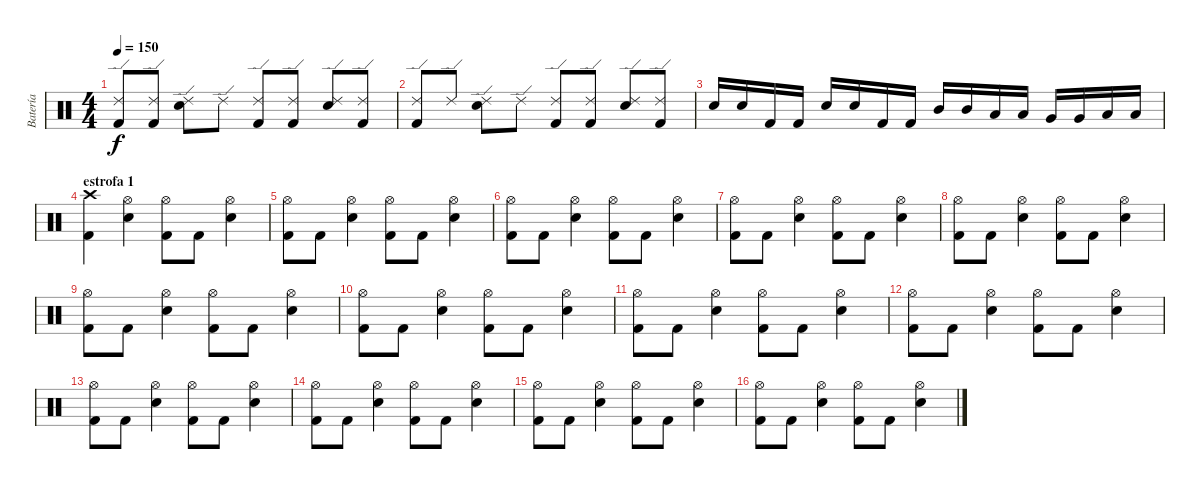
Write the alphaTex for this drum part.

\track ("Batería" "Batería") {instrument percussion}
\staff {score}
\articulation defaults
\ts (4 4)
\tempo 150
\clef neutral
\ks c
("Ride (edge) 2" "Kick (hit) 2").8{dy f} ("Ride (edge) 2" "Kick (hit) 2").8 ("Ride (edge) 2" "Electric Snare (hit)").8 "Ride (edge) 2".8 ("Ride (edge) 2" "Kick (hit) 2").8 ("Ride (edge) 2" "Kick (hit) 2").8 ("Ride (edge) 2" "Electric Snare (hit)").8 ("Ride (edge) 2" "Kick (hit) 2").8 |
("Ride (edge) 2" "Kick (hit) 2").8 "Ride (edge) 2".8 ("Ride (edge) 2" "Electric Snare (hit)").8 "Ride (edge) 2".8 ("Ride (edge) 2" "Kick (hit) 2").8 ("Ride (edge) 2" "Kick (hit) 2").8 ("Ride (edge) 2" "Electric Snare (hit)").8 ("Ride (edge) 2" "Kick (hit) 2").8 |
"Electric Snare (hit)".16 "Electric Snare (hit)".16 "Kick (hit) 2".16 "Kick (hit) 2".16 "Electric Snare (hit)".16 "Electric Snare (hit)".16 "Kick (hit) 2".16 "Kick (hit) 2".16 "Mid Tom (hit)".16 "Mid Tom (hit)".16 "Low Tom (hit)".16 "Low Tom (hit)".16 "Very Low Tom (hit)".16 "Very Low Tom (hit)".16 "Low Floor Tom (hit)".16 "Low Floor Tom (hit)".16 |
\section ("" "estrofa 1")
("Crash high (hit)" "Kick (hit) 2").4 ("Hi-Hat (open)" "Electric Snare (hit)").4 ("Kick (hit) 2" "Hi-Hat (open)").8 "Kick (hit) 2".8 ("Hi-Hat (open)" "Electric Snare (hit)").4 |
("Hi-Hat (open)" "Kick (hit) 2").8 "Kick (hit) 2".8 ("Hi-Hat (open)" "Electric Snare (hit)").4 ("Kick (hit) 2" "Hi-Hat (open)").8 "Kick (hit) 2".8 ("Hi-Hat (open)" "Electric Snare (hit)").4 |
("Hi-Hat (open)" "Kick (hit) 2").8 "Kick (hit) 2".8 ("Hi-Hat (open)" "Electric Snare (hit)").4 ("Kick (hit) 2" "Hi-Hat (open)").8 "Kick (hit) 2".8 ("Hi-Hat (open)" "Electric Snare (hit)").4 |
("Hi-Hat (open)" "Kick (hit) 2").8 "Kick (hit) 2".8 ("Hi-Hat (open)" "Electric Snare (hit)").4 ("Kick (hit) 2" "Hi-Hat (open)").8 "Kick (hit) 2".8 ("Hi-Hat (open)" "Electric Snare (hit)").4 |
("Hi-Hat (open)" "Kick (hit) 2").8 "Kick (hit) 2".8 ("Hi-Hat (open)" "Electric Snare (hit)").4 ("Kick (hit) 2" "Hi-Hat (open)").8 "Kick (hit) 2".8 ("Hi-Hat (open)" "Electric Snare (hit)").4 |
("Hi-Hat (open)" "Kick (hit) 2").8 "Kick (hit) 2".8 ("Hi-Hat (open)" "Electric Snare (hit)").4 ("Kick (hit) 2" "Hi-Hat (open)").8 "Kick (hit) 2".8 ("Hi-Hat (open)" "Electric Snare (hit)").4 |
("Hi-Hat (open)" "Kick (hit) 2").8 "Kick (hit) 2".8 ("Hi-Hat (open)" "Electric Snare (hit)").4 ("Kick (hit) 2" "Hi-Hat (open)").8 "Kick (hit) 2".8 ("Hi-Hat (open)" "Electric Snare (hit)").4 |
("Hi-Hat (open)" "Kick (hit) 2").8 "Kick (hit) 2".8 ("Hi-Hat (open)" "Electric Snare (hit)").4 ("Kick (hit) 2" "Hi-Hat (open)").8 "Kick (hit) 2".8 ("Hi-Hat (open)" "Electric Snare (hit)").4 |
("Hi-Hat (open)" "Kick (hit) 2").8 "Kick (hit) 2".8 ("Hi-Hat (open)" "Electric Snare (hit)").4 ("Kick (hit) 2" "Hi-Hat (open)").8 "Kick (hit) 2".8 ("Hi-Hat (open)" "Electric Snare (hit)").4 |
("Hi-Hat (open)" "Kick (hit) 2").8 "Kick (hit) 2".8 ("Hi-Hat (open)" "Electric Snare (hit)").4 ("Kick (hit) 2" "Hi-Hat (open)").8 "Kick (hit) 2".8 ("Hi-Hat (open)" "Electric Snare (hit)").4 |
("Hi-Hat (open)" "Kick (hit) 2").8 "Kick (hit) 2".8 ("Hi-Hat (open)" "Electric Snare (hit)").4 ("Kick (hit) 2" "Hi-Hat (open)").8 "Kick (hit) 2".8 ("Hi-Hat (open)" "Electric Snare (hit)").4 |
("Hi-Hat (open)" "Kick (hit) 2").8 "Kick (hit) 2".8 ("Hi-Hat (open)" "Electric Snare (hit)").4 ("Kick (hit) 2" "Hi-Hat (open)").8 "Kick (hit) 2".8 ("Hi-Hat (open)" "Electric Snare (hit)").4 |
("Hi-Hat (open)" "Kick (hit) 2").8 "Kick (hit) 2".8 ("Hi-Hat (open)" "Electric Snare (hit)").4 ("Kick (hit) 2" "Hi-Hat (open)").8 "Kick (hit) 2".8 ("Hi-Hat (open)" "Electric Snare (hit)").4
